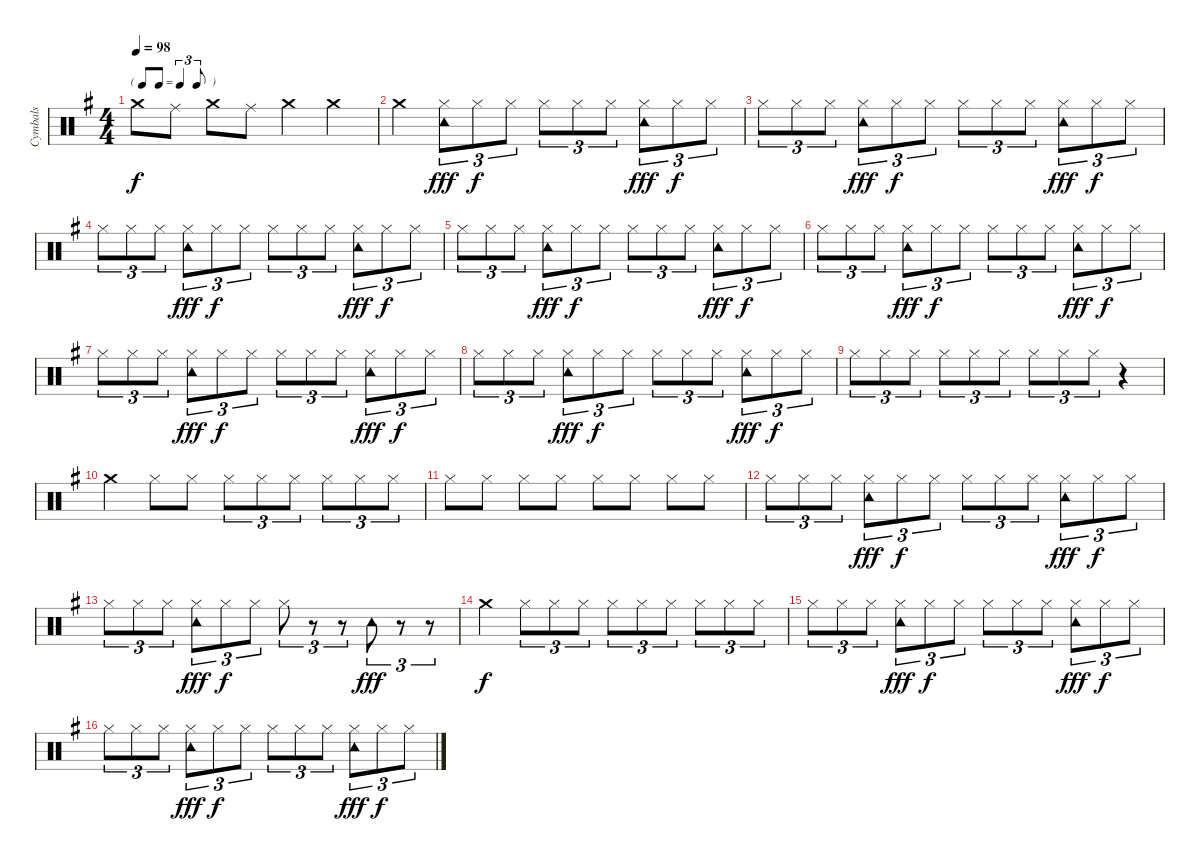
\track ("Cymbals" "Cymbals") {instrument percussion}
\staff {score}
\articulation defaults
\ts (4 4)
\tf triplet8th
\tempo 98
\clef neutral
\ks g "Crash medium (hit)".8{dy f} "Ride (middle)".8 "Crash medium (hit)".8 "Ride (middle)".8 "Crash medium (hit)".4 "Crash medium (hit)".4
|
"Crash medium (hit)".4 ("Hi-Hat (closed)" "Tambourine (hit)").8{tu (3 2) dy fff} "Hi-Hat (closed)".8{tu (3 2) dy f} "Hi-Hat (closed)".8{tu (3 2)} "Hi-Hat (closed)".8{tu (3 2)} "Hi-Hat (closed)".8{tu (3 2)} "Hi-Hat (closed)".8{tu (3 2)} ("Hi-Hat (closed)" "Tambourine (hit)").8{tu (3 2) dy fff} "Hi-Hat (closed)".8{tu (3 2) dy f} "Hi-Hat (closed)".8{tu (3 2)} |
"Hi-Hat (closed)".8{tu (3 2)} "Hi-Hat (closed)".8{tu (3 2)} "Hi-Hat (closed)".8{tu (3 2)} ("Hi-Hat (closed)" "Tambourine (hit)").8{tu (3 2) dy fff} "Hi-Hat (closed)".8{tu (3 2) dy f} "Hi-Hat (closed)".8{tu (3 2)} "Hi-Hat (closed)".8{tu (3 2)} "Hi-Hat (closed)".8{tu (3 2)} "Hi-Hat (closed)".8{tu (3 2)} ("Hi-Hat (closed)" "Tambourine (hit)").8{tu (3 2) dy fff} "Hi-Hat (closed)".8{tu (3 2) dy f} "Hi-Hat (closed)".8{tu (3 2)} |
"Hi-Hat (closed)".8{tu (3 2)} "Hi-Hat (closed)".8{tu (3 2)} "Hi-Hat (closed)".8{tu (3 2)} ("Hi-Hat (closed)" "Tambourine (hit)").8{tu (3 2) dy fff} "Hi-Hat (closed)".8{tu (3 2) dy f} "Hi-Hat (closed)".8{tu (3 2)} "Hi-Hat (closed)".8{tu (3 2)} "Hi-Hat (closed)".8{tu (3 2)} "Hi-Hat (closed)".8{tu (3 2)} ("Hi-Hat (closed)" "Tambourine (hit)").8{tu (3 2) dy fff} "Hi-Hat (closed)".8{tu (3 2) dy f} "Hi-Hat (closed)".8{tu (3 2)} |
"Hi-Hat (closed)".8{tu (3 2)} "Hi-Hat (closed)".8{tu (3 2)} "Hi-Hat (closed)".8{tu (3 2)} ("Hi-Hat (closed)" "Tambourine (hit)").8{tu (3 2) dy fff} "Hi-Hat (closed)".8{tu (3 2) dy f} "Hi-Hat (closed)".8{tu (3 2)} "Hi-Hat (closed)".8{tu (3 2)} "Hi-Hat (closed)".8{tu (3 2)} "Hi-Hat (closed)".8{tu (3 2)} ("Hi-Hat (closed)" "Tambourine (hit)").8{tu (3 2) dy fff} "Hi-Hat (closed)".8{tu (3 2) dy f} "Hi-Hat (closed)".8{tu (3 2)} |
"Hi-Hat (closed)".8{tu (3 2)} "Hi-Hat (closed)".8{tu (3 2)} "Hi-Hat (closed)".8{tu (3 2)} ("Hi-Hat (closed)" "Tambourine (hit)").8{tu (3 2) dy fff} "Hi-Hat (closed)".8{tu (3 2) dy f} "Hi-Hat (closed)".8{tu (3 2)} "Hi-Hat (closed)".8{tu (3 2)} "Hi-Hat (closed)".8{tu (3 2)} "Hi-Hat (closed)".8{tu (3 2)} ("Hi-Hat (closed)" "Tambourine (hit)").8{tu (3 2) dy fff} "Hi-Hat (closed)".8{tu (3 2) dy f} "Hi-Hat (closed)".8{tu (3 2)} |
"Hi-Hat (closed)".8{tu (3 2)} "Hi-Hat (closed)".8{tu (3 2)} "Hi-Hat (closed)".8{tu (3 2)} ("Hi-Hat (closed)" "Tambourine (hit)").8{tu (3 2) dy fff} "Hi-Hat (closed)".8{tu (3 2) dy f} "Hi-Hat (closed)".8{tu (3 2)} "Hi-Hat (closed)".8{tu (3 2)} "Hi-Hat (closed)".8{tu (3 2)} "Hi-Hat (closed)".8{tu (3 2)} ("Hi-Hat (closed)" "Tambourine (hit)").8{tu (3 2) dy fff} "Hi-Hat (closed)".8{tu (3 2) dy f} "Hi-Hat (closed)".8{tu (3 2)} |
"Hi-Hat (closed)".8{tu (3 2)} "Hi-Hat (closed)".8{tu (3 2)} "Hi-Hat (closed)".8{tu (3 2)} ("Hi-Hat (closed)" "Tambourine (hit)").8{tu (3 2) dy fff} "Hi-Hat (closed)".8{tu (3 2) dy f} "Hi-Hat (closed)".8{tu (3 2)} "Hi-Hat (closed)".8{tu (3 2)} "Hi-Hat (closed)".8{tu (3 2)} "Hi-Hat (closed)".8{tu (3 2)} ("Hi-Hat (closed)" "Tambourine (hit)").8{tu (3 2) dy fff} "Hi-Hat (closed)".8{tu (3 2) dy f} "Hi-Hat (closed)".8{tu (3 2)} |
"Hi-Hat (closed)".8{tu (3 2)} "Hi-Hat (closed)".8{tu (3 2)} "Hi-Hat (closed)".8{tu (3 2)} "Hi-Hat (closed)".8{tu (3 2)} "Hi-Hat (closed)".8{tu (3 2)} "Hi-Hat (closed)".8{tu (3 2)} "Hi-Hat (closed)".8{tu (3 2)} "Hi-Hat (closed)".8{tu (3 2)} "Hi-Hat (closed)".8{tu (3 2)} r.4 |
"Crash medium (hit)".4 "Hi-Hat (closed)".8 "Hi-Hat (closed)".8 "Hi-Hat (closed)".8{tu (3 2)} "Hi-Hat (closed)".8{tu (3 2)} "Hi-Hat (closed)".8{tu (3 2)} "Hi-Hat (closed)".8{tu (3 2)} "Hi-Hat (closed)".8{tu (3 2)} "Hi-Hat (closed)".8{tu (3 2)} |
"Hi-Hat (closed)".8 "Hi-Hat (closed)".8 "Hi-Hat (closed)".8 "Hi-Hat (closed)".8 "Hi-Hat (closed)".8 "Hi-Hat (closed)".8 "Hi-Hat (closed)".8 "Hi-Hat (closed)".8 |
"Hi-Hat (closed)".8{tu (3 2)} "Hi-Hat (closed)".8{tu (3 2)} "Hi-Hat (closed)".8{tu (3 2)} ("Hi-Hat (closed)" "Tambourine (hit)").8{tu (3 2) dy fff} "Hi-Hat (closed)".8{tu (3 2) dy f} "Hi-Hat (closed)".8{tu (3 2)} "Hi-Hat (closed)".8{tu (3 2)} "Hi-Hat (closed)".8{tu (3 2)} "Hi-Hat (closed)".8{tu (3 2)} ("Hi-Hat (closed)" "Tambourine (hit)").8{tu (3 2) dy fff} "Hi-Hat (closed)".8{tu (3 2) dy f} "Hi-Hat (closed)".8{tu (3 2)} |
"Hi-Hat (closed)".8{tu (3 2)} "Hi-Hat (closed)".8{tu (3 2)} "Hi-Hat (closed)".8{tu (3 2)} ("Hi-Hat (closed)" "Tambourine (hit)").8{tu (3 2) dy fff} "Hi-Hat (closed)".8{tu (3 2) dy f} "Hi-Hat (closed)".8{tu (3 2)} "Hi-Hat (closed)".8{tu (3 2)} r.8{tu (3 2)} r.8{tu (3 2)} "Tambourine (hit)".8{tu (3 2) dy fff} r.8{tu (3 2)} r.8{tu (3 2)} |
"Crash medium (hit)".4{dy f} "Hi-Hat (closed)".8{tu (3 2)} "Hi-Hat (closed)".8{tu (3 2)} "Hi-Hat (closed)".8{tu (3 2)} "Hi-Hat (closed)".8{tu (3 2)} "Hi-Hat (closed)".8{tu (3 2)} "Hi-Hat (closed)".8{tu (3 2)} "Hi-Hat (closed)".8{tu (3 2)} "Hi-Hat (closed)".8{tu (3 2)} "Hi-Hat (closed)".8{tu (3 2)} |
"Hi-Hat (closed)".8{tu (3 2)} "Hi-Hat (closed)".8{tu (3 2)} "Hi-Hat (closed)".8{tu (3 2)} ("Hi-Hat (closed)" "Tambourine (hit)").8{tu (3 2) dy fff} "Hi-Hat (closed)".8{tu (3 2) dy f} "Hi-Hat (closed)".8{tu (3 2)} "Hi-Hat (closed)".8{tu (3 2)} "Hi-Hat (closed)".8{tu (3 2)} "Hi-Hat (closed)".8{tu (3 2)} ("Hi-Hat (closed)" "Tambourine (hit)").8{tu (3 2) dy fff} "Hi-Hat (closed)".8{tu (3 2) dy f} "Hi-Hat (closed)".8{tu (3 2)} |
"Hi-Hat (closed)".8{tu (3 2)} "Hi-Hat (closed)".8{tu (3 2)} "Hi-Hat (closed)".8{tu (3 2)} ("Hi-Hat (closed)" "Tambourine (hit)").8{tu (3 2) dy fff} "Hi-Hat (closed)".8{tu (3 2) dy f} "Hi-Hat (closed)".8{tu (3 2)} "Hi-Hat (closed)".8{tu (3 2)} "Hi-Hat (closed)".8{tu (3 2)} "Hi-Hat (closed)".8{tu (3 2)} ("Hi-Hat (closed)" "Tambourine (hit)").8{tu (3 2) dy fff} "Hi-Hat (closed)".8{tu (3 2) dy f} "Hi-Hat (closed)".8{tu (3 2)}
